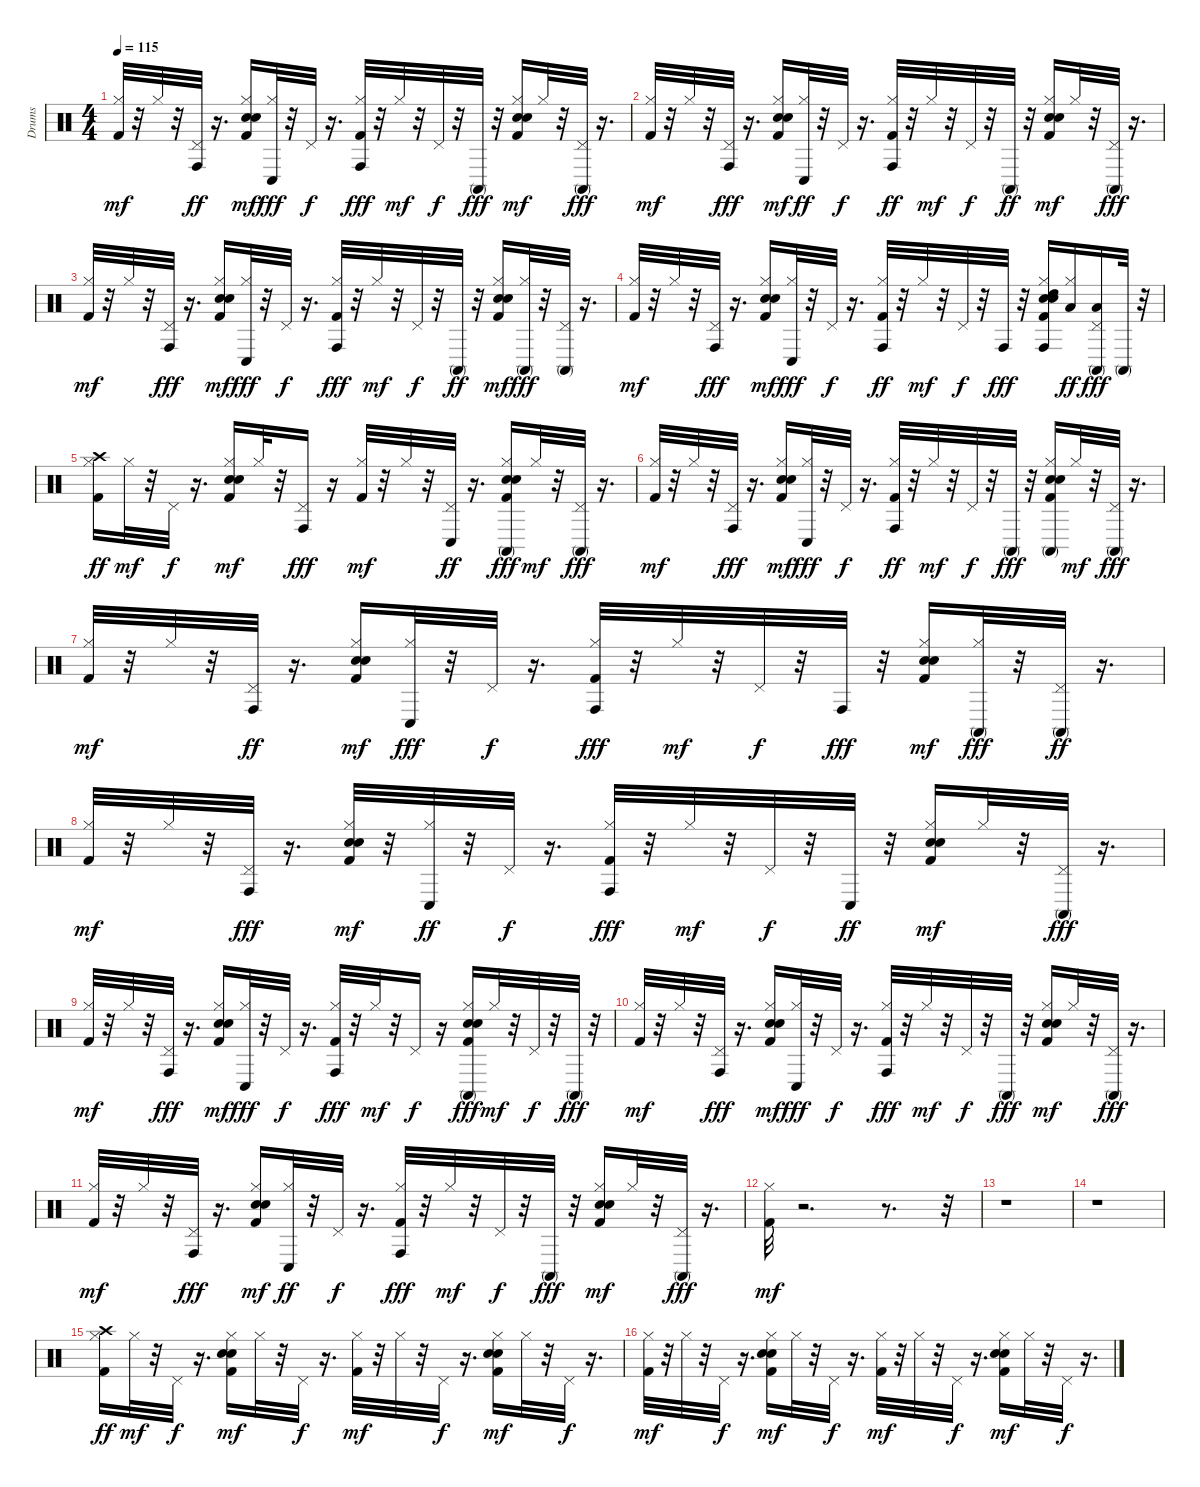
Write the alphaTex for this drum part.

\track ("Drums" "Drums") {instrument percussion}
\staff {score}
\articulation defaults
\ts (4 4)
\tempo 115
\clef neutral
\ks c
("Kick (hit) 2" "Hi-Hat (closed)").32{dy mf} r.32 "Hi-Hat (closed)".32 r.32 ("Pedal Hi-Hat (hit)" "Conga high (hit)").32{dy ff} r.16{d} ("Kick (hit) 2" "Snare (hit) 2" "Hand Clap (hit)" "Hi-Hat (closed)").16{dy mf} ("Hi-Hat (closed)" "Conga low (hit)").32{dy fff} r.32 "Pedal Hi-Hat (hit)".32{dy f} r.16{d} ("Kick (hit) 2" "Hi-Hat (closed)" "Conga high (hit)").32{dy fff} r.32 "Hi-Hat (closed)".32{dy mf} r.32 "Pedal Hi-Hat (hit)".32{dy f} r.32 "Conga high (mute)".32{dy fff} r.32 ("Kick (hit) 2" "Snare (hit) 2" "Hand Clap (hit)" "Hi-Hat (closed)").16{dy mf} "Hi-Hat (closed)".32 r.32 ("Pedal Hi-Hat (hit)" "Conga high (mute)").32{dy fff} r.16{d} |
("Kick (hit) 2" "Hi-Hat (closed)").32{dy mf} r.32 "Hi-Hat (closed)".32 r.32 ("Pedal Hi-Hat (hit)" "Conga high (hit)").32{dy fff} r.16{d} ("Kick (hit) 2" "Snare (hit) 2" "Hand Clap (hit)" "Hi-Hat (closed)").16{dy mf} ("Hi-Hat (closed)" "Conga low (hit)").32{dy ff} r.32 "Pedal Hi-Hat (hit)".32{dy f} r.16{d} ("Kick (hit) 2" "Hi-Hat (closed)" "Conga high (hit)").32{dy ff} r.32 "Hi-Hat (closed)".32{dy mf} r.32 "Pedal Hi-Hat (hit)".32{dy f} r.32 "Conga high (mute)".32{dy ff} r.32 ("Kick (hit) 2" "Snare (hit) 2" "Hand Clap (hit)" "Hi-Hat (closed)").16{dy mf} "Hi-Hat (closed)".32 r.32 ("Pedal Hi-Hat (hit)" "Conga high (mute)").32{dy fff} r.16{d} |
("Kick (hit) 2" "Hi-Hat (closed)").32{dy mf} r.32 "Hi-Hat (closed)".32 r.32 ("Pedal Hi-Hat (hit)" "Conga high (hit)").32{dy fff} r.16{d} ("Kick (hit) 2" "Snare (hit) 2" "Hand Clap (hit)" "Hi-Hat (closed)").16{dy mf} ("Hi-Hat (closed)" "Conga low (hit)").32{dy fff} r.32 "Pedal Hi-Hat (hit)".32{dy f} r.16{d} ("Kick (hit) 2" "Hi-Hat (closed)" "Conga high (hit)").32{dy fff} r.32 "Hi-Hat (closed)".32{dy mf} r.32 "Pedal Hi-Hat (hit)".32{dy f} r.32 "Conga high (mute)".32{dy ff} r.32 ("Kick (hit) 2" "Snare (hit) 2" "Hand Clap (hit)" "Hi-Hat (closed)").16{dy mf} ("Hi-Hat (closed)" "Conga high (mute)").32{dy fff} r.32 ("Pedal Hi-Hat (hit)" "Conga high (mute)").32 r.16{d} |
("Kick (hit) 2" "Hi-Hat (closed)").32{dy mf} r.32 "Hi-Hat (closed)".32 r.32 ("Pedal Hi-Hat (hit)" "Conga high (hit)").32{dy fff} r.16{d} ("Kick (hit) 2" "Snare (hit) 2" "Hand Clap (hit)" "Hi-Hat (closed)").16{dy mf} ("Hi-Hat (closed)" "Conga low (hit)").32{dy fff} r.32 "Pedal Hi-Hat (hit)".32{dy f} r.16{d} ("Kick (hit) 2" "Hi-Hat (closed)" "Conga high (hit)").32{dy ff} r.32 "Hi-Hat (closed)".32{dy mf} r.32 "Pedal Hi-Hat (hit)".32{dy f} r.32 "Conga high (hit)".32{dy fff} r.32 ("Kick (hit) 2" "Snare (hit) 2" "Hand Clap (hit)" "Hi-Hat (closed)" "High Tom (hit)" "Conga high (hit)").16 ("Hi-Hat (closed)" "Low Tom (hit)").16{dy ff} ("Pedal Hi-Hat (hit)" "Low Floor Tom (hit)" "Conga high (mute)").16{dy fff} "Conga high (mute)".32 r.32 |
("Kick (hit) 2" "Hi-Hat (closed)" "Crash high (hit)").16{dy ff} "Hi-Hat (closed)".32{dy mf} r.32 "Pedal Hi-Hat (hit)".32{dy f} r.16{d} ("Kick (hit) 2" "Snare (hit) 2" "Hand Clap (hit)" "Hi-Hat (closed)").16{dy mf} "Hi-Hat (closed)".32 r.32 ("Pedal Hi-Hat (hit)" "Conga high (hit)").16{dy fff} r.16 ("Kick (hit) 2" "Hi-Hat (closed)").32{dy mf} r.32 "Hi-Hat (closed)".32 r.32 ("Pedal Hi-Hat (hit)" "Conga low (hit)").32{dy ff} r.16{d} ("Kick (hit) 2" "Snare (hit) 2" "Hand Clap (hit)" "Hi-Hat (closed)" "Conga high (mute)").16{dy fff} "Hi-Hat (closed)".32{dy mf} r.32 ("Pedal Hi-Hat (hit)" "Conga high (mute)").32{dy fff} r.16{d} |
("Kick (hit) 2" "Hi-Hat (closed)").32{dy mf} r.32 "Hi-Hat (closed)".32 r.32 ("Pedal Hi-Hat (hit)" "Conga high (hit)").32{dy fff} r.16{d} ("Kick (hit) 2" "Snare (hit) 2" "Hand Clap (hit)" "Hi-Hat (closed)").16{dy mf} ("Hi-Hat (closed)" "Conga low (hit)").32{dy fff} r.32 "Pedal Hi-Hat (hit)".32{dy f} r.16{d} ("Kick (hit) 2" "Hi-Hat (closed)" "Conga high (hit)").32{dy ff} r.32 "Hi-Hat (closed)".32{dy mf} r.32 "Pedal Hi-Hat (hit)".32{dy f} r.32 "Conga high (mute)".32{dy fff} r.32 ("Kick (hit) 2" "Snare (hit) 2" "Hand Clap (hit)" "Hi-Hat (closed)" "Conga high (mute)").16 "Hi-Hat (closed)".32{dy mf} r.32 ("Pedal Hi-Hat (hit)" "Conga high (mute)").32{dy fff} r.16{d} |
("Kick (hit) 2" "Hi-Hat (closed)").32{dy mf} r.32 "Hi-Hat (closed)".32 r.32 ("Pedal Hi-Hat (hit)" "Conga high (hit)").32{dy ff} r.16{d} ("Kick (hit) 2" "Snare (hit) 2" "Hand Clap (hit)" "Hi-Hat (closed)").16{dy mf} ("Hi-Hat (closed)" "Conga low (hit)").32{dy fff} r.32 "Pedal Hi-Hat (hit)".32{dy f} r.16{d} ("Kick (hit) 2" "Hi-Hat (closed)" "Conga high (hit)").32{dy fff} r.32 "Hi-Hat (closed)".32{dy mf} r.32 "Pedal Hi-Hat (hit)".32{dy f} r.32 "Conga high (hit)".32{dy fff} r.32 ("Kick (hit) 2" "Snare (hit) 2" "Hand Clap (hit)" "Hi-Hat (closed)").16{dy mf} ("Hi-Hat (closed)" "Conga high (mute)").32{dy fff} r.32 ("Pedal Hi-Hat (hit)" "Conga high (mute)").32{dy ff} r.16{d} |
("Kick (hit) 2" "Hi-Hat (closed)").32{dy mf} r.32 "Hi-Hat (closed)".32 r.32 ("Pedal Hi-Hat (hit)" "Conga high (hit)").32{dy fff} r.16{d} ("Kick (hit) 2" "Snare (hit) 2" "Hand Clap (hit)" "Hi-Hat (closed)").32{dy mf} r.32 ("Hi-Hat (closed)" "Conga low (hit)").32{dy ff} r.32 "Pedal Hi-Hat (hit)".32{dy f} r.16{d} ("Kick (hit) 2" "Hi-Hat (closed)" "Conga high (hit)").32{dy fff} r.32 "Hi-Hat (closed)".32{dy mf} r.32 "Pedal Hi-Hat (hit)".32{dy f} r.32 "Conga low (hit)".32{dy ff} r.32 ("Kick (hit) 2" "Snare (hit) 2" "Hand Clap (hit)" "Hi-Hat (closed)").16{dy mf} "Hi-Hat (closed)".32 r.32 ("Pedal Hi-Hat (hit)" "Conga high (mute)").32{dy fff} r.16{d} |
("Kick (hit) 2" "Hi-Hat (closed)").32{dy mf} r.32 "Hi-Hat (closed)".32 r.32 ("Pedal Hi-Hat (hit)" "Conga high (hit)").32{dy fff} r.16{d} ("Kick (hit) 2" "Snare (hit) 2" "Hand Clap (hit)" "Hi-Hat (closed)").16{dy mf} ("Hi-Hat (closed)" "Conga low (hit)").32{dy fff} r.32 "Pedal Hi-Hat (hit)".32{dy f} r.16{d} ("Kick (hit) 2" "Hi-Hat (closed)" "Conga high (hit)").32{dy fff} r.32 "Hi-Hat (closed)".32{dy mf} r.32 "Pedal Hi-Hat (hit)".16{dy f} r.16 ("Kick (hit) 2" "Snare (hit) 2" "Hand Clap (hit)" "Hi-Hat (closed)" "Conga high (mute)").16{dy fff} "Hi-Hat (closed)".32{dy mf} r.32 "Pedal Hi-Hat (hit)".32{dy f} r.32 "Conga high (mute)".32{dy fff} r.32 |
("Kick (hit) 2" "Hi-Hat (closed)").32{dy mf} r.32 "Hi-Hat (closed)".32 r.32 ("Pedal Hi-Hat (hit)" "Conga high (hit)").32{dy fff} r.16{d} ("Kick (hit) 2" "Snare (hit) 2" "Hand Clap (hit)" "Hi-Hat (closed)").16{dy mf} ("Hi-Hat (closed)" "Conga low (hit)").32{dy fff} r.32 "Pedal Hi-Hat (hit)".32{dy f} r.16{d} ("Kick (hit) 2" "Hi-Hat (closed)" "Conga high (hit)").32{dy fff} r.32 "Hi-Hat (closed)".32{dy mf} r.32 "Pedal Hi-Hat (hit)".32{dy f} r.32 "Conga high (mute)".32{dy fff} r.32 ("Kick (hit) 2" "Snare (hit) 2" "Hand Clap (hit)" "Hi-Hat (closed)").16{dy mf} "Hi-Hat (closed)".32 r.32 ("Pedal Hi-Hat (hit)" "Conga high (mute)").32{dy fff} r.16{d} |
("Kick (hit) 2" "Hi-Hat (closed)").32{dy mf} r.32 "Hi-Hat (closed)".32 r.32 ("Pedal Hi-Hat (hit)" "Conga high (hit)").32{dy fff} r.16{d} ("Kick (hit) 2" "Snare (hit) 2" "Hand Clap (hit)" "Hi-Hat (closed)").16{dy mf} ("Hi-Hat (closed)" "Conga low (hit)").32{dy ff} r.32 "Pedal Hi-Hat (hit)".32{dy f} r.16{d} ("Kick (hit) 2" "Hi-Hat (closed)" "Conga high (hit)").32{dy fff} r.32 "Hi-Hat (closed)".32{dy mf} r.32 "Pedal Hi-Hat (hit)".32{dy f} r.32 "Conga high (mute)".32{dy fff} r.32 ("Kick (hit) 2" "Snare (hit) 2" "Hand Clap (hit)" "Hi-Hat (closed)").16{dy mf} "Hi-Hat (closed)".32 r.32 ("Pedal Hi-Hat (hit)" "Conga high (mute)").32{dy fff} r.16{d} |
("Kick (hit) 2" "Hi-Hat (closed)").32{dy mf} r.2{d} r.8{d} r.32 |
r.1 |
r.1 |
("Kick (hit) 2" "Hi-Hat (closed)" "Crash high (hit)").16{dy ff} "Hi-Hat (closed)".32{dy mf} r.32 "Pedal Hi-Hat (hit)".32{dy f} r.16{d} ("Kick (hit) 2" "Snare (hit) 2" "Hand Clap (hit)" "Hi-Hat (closed)").16{dy mf} "Hi-Hat (closed)".32 r.32 "Pedal Hi-Hat (hit)".32{dy f} r.16{d} ("Kick (hit) 2" "Hi-Hat (closed)").32{dy mf} r.32 "Hi-Hat (closed)".32 r.32 "Pedal Hi-Hat (hit)".32{dy f} r.16{d} ("Kick (hit) 2" "Snare (hit) 2" "Hand Clap (hit)" "Hi-Hat (closed)").16{dy mf} "Hi-Hat (closed)".32 r.32 "Pedal Hi-Hat (hit)".32{dy f} r.16{d} |
("Kick (hit) 2" "Hi-Hat (closed)").32{dy mf} r.32 "Hi-Hat (closed)".32 r.32 "Pedal Hi-Hat (hit)".32{dy f} r.16{d} ("Kick (hit) 2" "Snare (hit) 2" "Hand Clap (hit)" "Hi-Hat (closed)").16{dy mf} "Hi-Hat (closed)".32 r.32 "Pedal Hi-Hat (hit)".32{dy f} r.16{d} ("Kick (hit) 2" "Hi-Hat (closed)").32{dy mf} r.32 "Hi-Hat (closed)".32 r.32 "Pedal Hi-Hat (hit)".32{dy f} r.16{d} ("Kick (hit) 2" "Snare (hit) 2" "Hand Clap (hit)" "Hi-Hat (closed)").16{dy mf} "Hi-Hat (closed)".32 r.32 "Pedal Hi-Hat (hit)".32{dy f} r.16{d}
